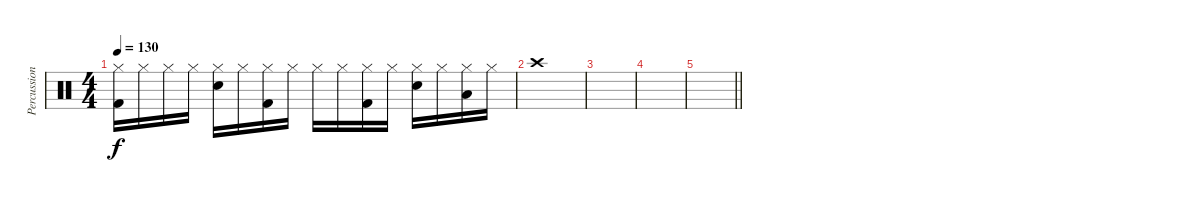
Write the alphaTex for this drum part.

\track ("Percussion" "Percussion") {instrument percussion}
\staff {score}
\articulation defaults
\ts (4 4)
\tempo 130
\clef neutral
\ks c
("Hi-Hat (closed)" "Kick (hit) 2").16{dy f} "Hi-Hat (closed)".16 "Hi-Hat (closed)".16 "Hi-Hat (closed)".16 ("Hi-Hat (closed)" "Snare (hit) 2").16 "Hi-Hat (closed)".16 ("Hi-Hat (closed)" "Kick (hit) 2").16 "Hi-Hat (closed)".16 "Hi-Hat (closed)".16 "Hi-Hat (closed)".16 ("Hi-Hat (closed)" "Kick (hit) 2").16 "Hi-Hat (closed)".16 ("Hi-Hat (closed)" "Snare (hit) 2").16 "Hi-Hat (closed)".16 ("Hi-Hat (closed)" "Low Tom (hit)").16 "Hi-Hat (closed)".16 |
"Crash high (hit)".1 |
|
|
\barLineRight lightlight
